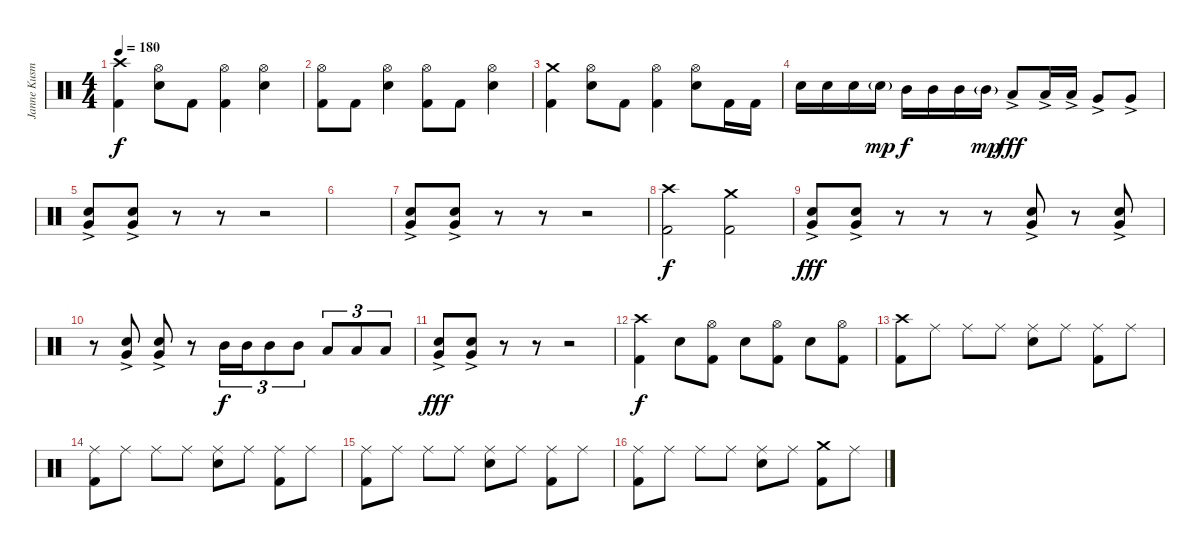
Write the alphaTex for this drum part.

\track ("Janne Kusmin - Drums" "Janne Kusm") {instrument percussion}
\staff {score}
\articulation defaults
\ts (4 4)
\tempo 180
\clef neutral
\ks c
("Crash high (hit)" "Kick (hit) 2").4{dy f} ("Hi-Hat (open)" "Electric Snare (hit)").8 "Kick (hit) 2".8 ("Hi-Hat (open)" "Kick (hit) 2").4 ("Hi-Hat (open)" "Electric Snare (hit)").4 |
("Hi-Hat (open)" "Kick (hit) 2").8 "Kick (hit) 2".8 ("Hi-Hat (open)" "Electric Snare (hit)").4 ("Hi-Hat (open)" "Kick (hit) 2").8 "Kick (hit) 2".8 ("Hi-Hat (open)" "Electric Snare (hit)").4 |
("Crash medium (hit)" "Kick (hit) 2").4 ("Hi-Hat (open)" "Electric Snare (hit)").8 "Kick (hit) 2".8 ("Hi-Hat (open)" "Kick (hit) 2").4 ("Hi-Hat (open)" "Electric Snare (hit)").8 "Kick (hit) 2".16 "Kick (hit) 2".16 |
"Electric Snare (hit)".16 "Electric Snare (hit)".16 "Electric Snare (hit)".16 "Electric Snare (hit)"{g}.16{dy mp} "Mid Tom (hit)".16{dy f} "Mid Tom (hit)".16 "Mid Tom (hit)".16 "Mid Tom (hit)"{g}.16{dy mp} "Low Tom (hit)"{ac}.8{dy fff} "Low Tom (hit)"{ac}.16 "Low Tom (hit)"{ac}.16 "Very Low Tom (hit)"{ac}.8 "Very Low Tom (hit)"{ac}.8 |
\section ("" "")
("Very Low Tom (hit)"{ac} "Electric Snare (hit)").8 ("Very Low Tom (hit)"{ac} "Electric Snare (hit)").8 r.8 r.8 r.2 |
|
("Very Low Tom (hit)"{ac} "Electric Snare (hit)").8 ("Very Low Tom (hit)"{ac} "Electric Snare (hit)").8 r.8 r.8 r.2 |
("Crash high (hit)" "Kick (hit) 2").2{dy f} ("Crash medium (hit)" "Kick (hit) 2").2 |
("Very Low Tom (hit)"{ac} "Electric Snare (hit)").8{dy fff} ("Very Low Tom (hit)"{ac} "Electric Snare (hit)").8 r.8 r.8 r.8 ("Very Low Tom (hit)"{ac} "Electric Snare (hit)").8 r.8 ("Very Low Tom (hit)"{ac} "Electric Snare (hit)").8 |
r.8 ("Very Low Tom (hit)"{ac} "Electric Snare (hit)").8 ("Very Low Tom (hit)"{ac} "Electric Snare (hit)").8 r.8 "Mid Tom (hit)".16{tu (3 2) dy f} "Mid Tom (hit)".16{tu (3 2)} "Mid Tom (hit)".8{tu (3 2)} "Mid Tom (hit)".8{tu (3 2)} "Low Tom (hit)".8{tu (3 2)} "Low Tom (hit)".8{tu (3 2)} "Low Tom (hit)".8{tu (3 2)} |
("Very Low Tom (hit)"{ac} "Electric Snare (hit)").8{dy fff} ("Very Low Tom (hit)"{ac} "Electric Snare (hit)").8 r.8 r.8 r.2 |
("Crash high (hit)" "Kick (hit) 2").4{dy f} "Electric Snare (hit)".8 ("Hi-Hat (open)" "Kick (hit) 2").8 "Electric Snare (hit)".8 ("Hi-Hat (open)" "Kick (hit) 2").8 "Electric Snare (hit)".8 ("Hi-Hat (open)" "Kick (hit) 2").8 |
("Crash high (hit)" "Kick (hit) 2").8 "Ride (middle)".8 "Ride (middle)".8 "Ride (middle)".8 ("Ride (middle)" "Electric Snare (hit)").8 "Ride (middle)".8 ("Ride (middle)" "Kick (hit) 2").8 "Ride (middle)".8 |
("Ride (middle)" "Kick (hit) 2").8 "Ride (middle)".8 "Ride (middle)".8 "Ride (middle)".8 ("Ride (middle)" "Electric Snare (hit)").8 "Ride (middle)".8 ("Ride (middle)" "Kick (hit) 2").8 "Ride (middle)".8 |
("Ride (middle)" "Kick (hit) 2").8 "Ride (middle)".8 "Ride (middle)".8 "Ride (middle)".8 ("Ride (middle)" "Electric Snare (hit)").8 "Ride (middle)".8 ("Ride (middle)" "Kick (hit) 2").8 "Ride (middle)".8 |
("Ride (middle)" "Kick (hit) 2").8 "Ride (middle)".8 "Ride (middle)".8 "Ride (middle)".8 ("Ride (middle)" "Electric Snare (hit)").8 "Ride (middle)".8 ("Crash medium (hit)" "Kick (hit) 2").8 "Ride (middle)".8
